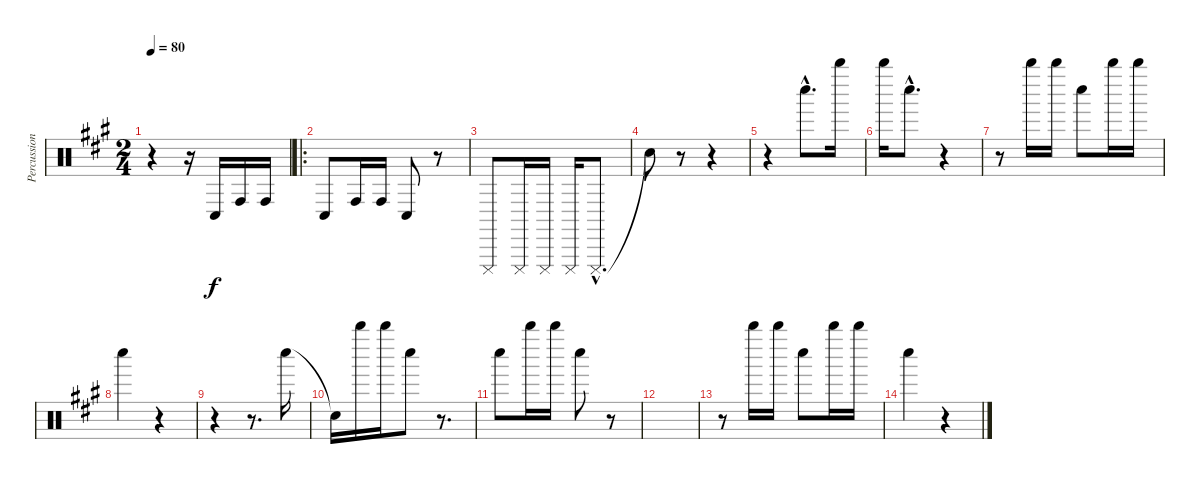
\track ("Percussions" "Percussion") {instrument percussion}
\staff {score}
\articulation defaults
\ts (2 4)
\tempo 80
\clef neutral
\ks a
r.4{dy f} r.16 "Conga low (hit)".16 "Conga high (hit)".16 "Conga high (hit)".16 |
\ro "Conga low (hit)".8 "Conga high (hit)".16 "Conga high (hit)".16 "Conga low (hit)".8
r.8 |
"Cuica (mute)".8 "Cuica (mute)".16 "Cuica (mute)".16 "Cuica (mute)".16 "Cuica (mute)"{hac}.8{d} |
"Snare (hit)"{t}.8 r.8 r.4 |
r.4 "Whistle low (hit)"{hac}.8{d} "Whistle high (hit)".16 |
"Whistle high (hit)".16 "Whistle low (hit)"{hac}.8{d} r.4 |
r.8 "Whistle high (hit)".16 "Whistle high (hit)".16 "Whistle low (hit)".8 "Whistle high (hit)".16 "Whistle high (hit)".16 |
"Whistle low (hit)".4 r.4 |
r.4 r.8{d} "Whistle low (hit)".16 |
"Snare (hit)"{t}.16 "Whistle high (hit)".16 "Whistle high (hit)".16 "Whistle low (hit)".8 r.8{d} |
"Whistle low (hit)".8 "Whistle high (hit)".16 "Whistle high (hit)".16 "Whistle low (hit)".8 r.8 |
|
r.8 "Whistle high (hit)".16 "Whistle high (hit)".16 "Whistle low (hit)".8 "Whistle high (hit)".16 "Whistle high (hit)".16 |
"Whistle low (hit)".4 r.4
